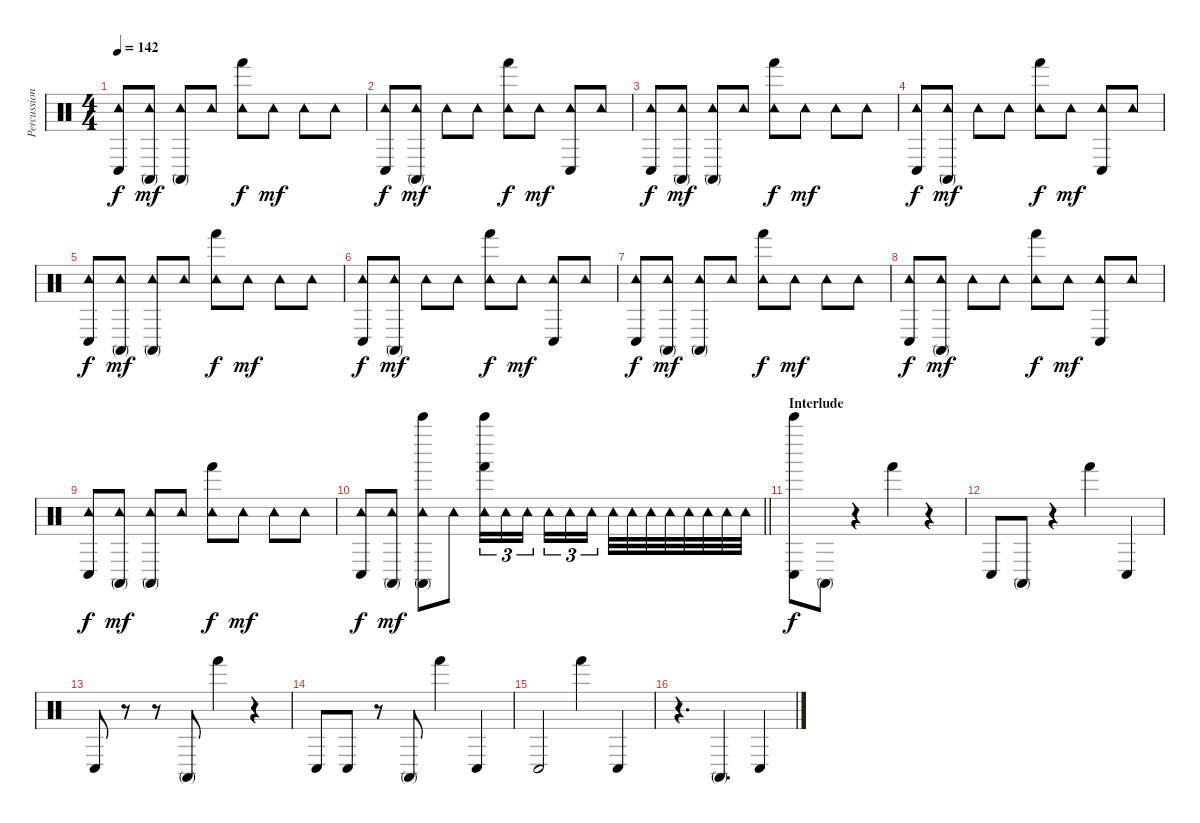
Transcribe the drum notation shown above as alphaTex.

\track ("Percussion" "Percussion") {instrument percussion}
\staff {score}
\articulation defaults
\ts (4 4)
\tempo 142
\clef neutral
\ks c
("Conga low (hit)" "Tambourine (hit)").8{dy f} ("Conga high (mute)" "Tambourine (hit)").8{dy mf} ("Conga high (mute)" "Tambourine (hit)").8 "Tambourine (hit)".8 ("Hand (hit)" "Tambourine (hit)").8{dy f} "Tambourine (hit)".8{dy mf} "Tambourine (hit)".8 "Tambourine (hit)".8 |
("Conga low (hit)" "Tambourine (hit)").8{dy f} ("Conga high (mute)" "Tambourine (hit)").8{dy mf} "Tambourine (hit)".8 "Tambourine (hit)".8 ("Hand (hit)" "Tambourine (hit)").8{dy f} "Tambourine (hit)".8{dy mf} ("Conga low (hit)" "Tambourine (hit)").8 "Tambourine (hit)".8 |
("Conga low (hit)" "Tambourine (hit)").8{dy f} ("Conga high (mute)" "Tambourine (hit)").8{dy mf} ("Conga high (mute)" "Tambourine (hit)").8 "Tambourine (hit)".8 ("Hand (hit)" "Tambourine (hit)").8{dy f} "Tambourine (hit)".8{dy mf} "Tambourine (hit)".8 "Tambourine (hit)".8 |
("Conga low (hit)" "Tambourine (hit)").8{dy f} ("Conga high (mute)" "Tambourine (hit)").8{dy mf} "Tambourine (hit)".8 "Tambourine (hit)".8 ("Hand (hit)" "Tambourine (hit)").8{dy f} "Tambourine (hit)".8{dy mf} ("Conga low (hit)" "Tambourine (hit)").8 "Tambourine (hit)".8 |
("Conga low (hit)" "Tambourine (hit)").8{dy f} ("Conga high (mute)" "Tambourine (hit)").8{dy mf} ("Conga high (mute)" "Tambourine (hit)").8 "Tambourine (hit)".8 ("Hand (hit)" "Tambourine (hit)").8{dy f} "Tambourine (hit)".8{dy mf} "Tambourine (hit)".8 "Tambourine (hit)".8 |
("Conga low (hit)" "Tambourine (hit)").8{dy f} ("Conga high (mute)" "Tambourine (hit)").8{dy mf} "Tambourine (hit)".8 "Tambourine (hit)".8 ("Hand (hit)" "Tambourine (hit)").8{dy f} "Tambourine (hit)".8{dy mf} ("Conga low (hit)" "Tambourine (hit)").8 "Tambourine (hit)".8 |
("Conga low (hit)" "Tambourine (hit)").8{dy f} ("Conga high (mute)" "Tambourine (hit)").8{dy mf} ("Conga high (mute)" "Tambourine (hit)").8 "Tambourine (hit)".8 ("Hand (hit)" "Tambourine (hit)").8{dy f} "Tambourine (hit)".8{dy mf} "Tambourine (hit)".8 "Tambourine (hit)".8 |
("Conga low (hit)" "Tambourine (hit)").8{dy f} ("Conga high (mute)" "Tambourine (hit)").8{dy mf} "Tambourine (hit)".8 "Tambourine (hit)".8 ("Hand (hit)" "Tambourine (hit)").8{dy f} "Tambourine (hit)".8{dy mf} ("Conga low (hit)" "Tambourine (hit)").8 "Tambourine (hit)".8 |
("Conga low (hit)" "Tambourine (hit)").8{dy f} ("Conga high (mute)" "Tambourine (hit)").8{dy mf} ("Conga high (mute)" "Tambourine (hit)").8 "Tambourine (hit)".8 ("Hand (hit)" "Tambourine (hit)").8{dy f} "Tambourine (hit)".8{dy mf} "Tambourine (hit)".8 "Tambourine (hit)".8 |
\barLineRight lightlight
("Conga low (hit)" "Tambourine (hit)").8{dy f} ("Conga high (mute)" "Tambourine (hit)").8{dy mf} ("Bell Tree (hit)" "Conga high (mute)" "Tambourine (hit)").8 "Tambourine (hit)".8 ("Bell Tree (hit)" "Hand (hit)" "Tambourine (hit)").16{tu (3 2)} "Tambourine (hit)".16{tu (3 2)} "Tambourine (hit)".16{tu (3 2) beam splitsecondary} "Tambourine (hit)".16{tu (3 2)} "Tambourine (hit)".16{tu (3 2)} "Tambourine (hit)".16{tu (3 2)} "Tambourine (hit)".32 "Tambourine (hit)".32 "Tambourine (hit)".32 "Tambourine (hit)".32 "Tambourine (hit)".32 "Tambourine (hit)".32 "Tambourine (hit)".32 "Tambourine (hit)".32 |
\section ("" "Interlude")
("Bell Tree (hit)" "Conga low (hit)").8{dy f} "Conga high (mute)".8 r.4 "Hand (hit)".4 r.4 |
"Conga low (hit)".8 "Conga high (mute)".8 r.4 "Hand (hit)".4 "Conga low (hit)".4 |
"Conga low (hit)".8 r.8 r.8 "Conga high (mute)".8 "Hand (hit)".4 r.4 |
"Conga low (hit)".8 "Conga low (hit)".8 r.8 "Conga high (mute)".8 "Hand (hit)".4 "Conga low (hit)".4 |
"Conga low (hit)".2 "Hand (hit)".4 "Conga low (hit)".4 |
r.4{d} "Conga high (mute)".4{d} "Conga low (hit)".4
